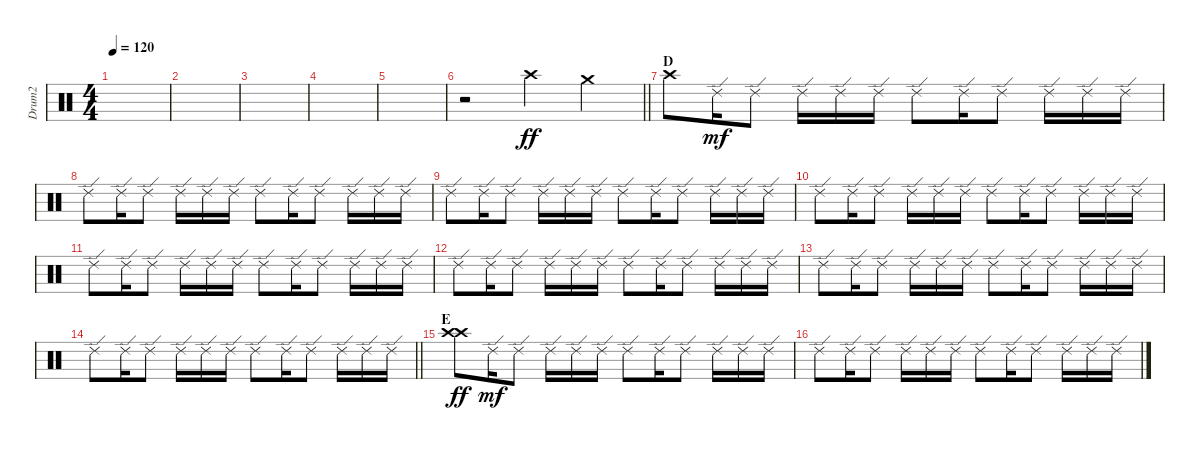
\track ("Drum2" "Drum2") {instrument percussion}
\staff {score}
\articulation defaults
\ts (4 4)
\tempo 120
\clef neutral
\ks c
|
|
|
|
|
\barLineRight lightlight
r.2 "Crash high (hit)".4{dy ff} "Crash medium (hit)".4 |
\section ("" "D")
"Crash high (hit)".8 "Ride (edge) 2".16{dy mf} "Ride (edge) 2".8 "Ride (edge) 2".16 "Ride (edge) 2".16 "Ride (edge) 2".16 "Ride (edge) 2".8 "Ride (edge) 2".16 "Ride (edge) 2".8 "Ride (edge) 2".16 "Ride (edge) 2".16 "Ride (edge) 2".16 |
"Ride (edge) 2".8 "Ride (edge) 2".16 "Ride (edge) 2".8 "Ride (edge) 2".16 "Ride (edge) 2".16 "Ride (edge) 2".16 "Ride (edge) 2".8 "Ride (edge) 2".16 "Ride (edge) 2".8 "Ride (edge) 2".16 "Ride (edge) 2".16 "Ride (edge) 2".16 |
"Ride (edge) 2".8 "Ride (edge) 2".16 "Ride (edge) 2".8 "Ride (edge) 2".16 "Ride (edge) 2".16 "Ride (edge) 2".16 "Ride (edge) 2".8 "Ride (edge) 2".16 "Ride (edge) 2".8 "Ride (edge) 2".16 "Ride (edge) 2".16 "Ride (edge) 2".16 |
"Ride (edge) 2".8 "Ride (edge) 2".16 "Ride (edge) 2".8 "Ride (edge) 2".16 "Ride (edge) 2".16 "Ride (edge) 2".16 "Ride (edge) 2".8 "Ride (edge) 2".16 "Ride (edge) 2".8 "Ride (edge) 2".16 "Ride (edge) 2".16 "Ride (edge) 2".16 |
"Ride (edge) 2".8 "Ride (edge) 2".16 "Ride (edge) 2".8 "Ride (edge) 2".16 "Ride (edge) 2".16 "Ride (edge) 2".16 "Ride (edge) 2".8 "Ride (edge) 2".16 "Ride (edge) 2".8 "Ride (edge) 2".16 "Ride (edge) 2".16 "Ride (edge) 2".16 |
"Ride (edge) 2".8 "Ride (edge) 2".16 "Ride (edge) 2".8 "Ride (edge) 2".16 "Ride (edge) 2".16 "Ride (edge) 2".16 "Ride (edge) 2".8 "Ride (edge) 2".16 "Ride (edge) 2".8 "Ride (edge) 2".16 "Ride (edge) 2".16 "Ride (edge) 2".16 |
"Ride (edge) 2".8 "Ride (edge) 2".16 "Ride (edge) 2".8 "Ride (edge) 2".16 "Ride (edge) 2".16 "Ride (edge) 2".16 "Ride (edge) 2".8 "Ride (edge) 2".16 "Ride (edge) 2".8 "Ride (edge) 2".16 "Ride (edge) 2".16 "Ride (edge) 2".16 |
\barLineRight lightlight "Ride (edge) 2".8 "Ride (edge) 2".16 "Ride (edge) 2".8 "Ride (edge) 2".16 "Ride (edge) 2".16 "Ride (edge) 2".16 "Ride (edge) 2".8 "Ride (edge) 2".16 "Ride (edge) 2".8 "Ride (edge) 2".16 "Ride (edge) 2".16 "Ride (edge) 2".16
|
\section ("" "E")
("Crash high (hit)" "Crash high (hit)").8{dy ff} "Ride (edge) 2".16{dy mf} "Ride (edge) 2".8 "Ride (edge) 2".16 "Ride (edge) 2".16 "Ride (edge) 2".16 "Ride (edge) 2".8 "Ride (edge) 2".16 "Ride (edge) 2".8 "Ride (edge) 2".16 "Ride (edge) 2".16 "Ride (edge) 2".16 |
"Ride (edge) 2".8 "Ride (edge) 2".16 "Ride (edge) 2".8 "Ride (edge) 2".16 "Ride (edge) 2".16 "Ride (edge) 2".16 "Ride (edge) 2".8 "Ride (edge) 2".16 "Ride (edge) 2".8 "Ride (edge) 2".16 "Ride (edge) 2".16 "Ride (edge) 2".16
